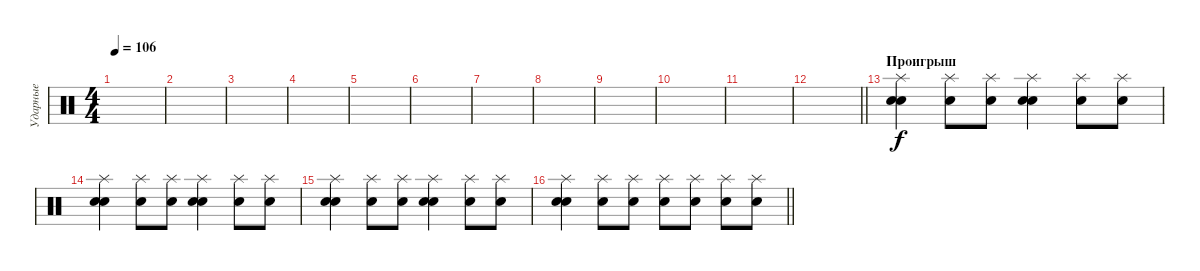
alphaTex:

\track ("Ударные" "Ударные") {instrument percussion}
\staff {score}
\articulation defaults
\ts (4 4)
\tempo 106
\clef neutral
\ks c
|
|
|
|
|
|
|
|
|
|
|
\barLineRight lightlight
|
\section ("" "Проигрыш")
("Snare (hit) 2" "Electric Snare (hit)" "Splash (hit)").4 ("Electric Snare (hit)" "Splash (hit)").8 ("Electric Snare (hit)" "Splash (hit)").8 ("Snare (hit) 2" "Electric Snare (hit)" "Splash (hit)").4 ("Electric Snare (hit)" "Splash (hit)").8 ("Electric Snare (hit)" "Splash (hit)").8 |
("Snare (hit) 2" "Electric Snare (hit)" "Splash (hit)").4 ("Electric Snare (hit)" "Splash (hit)").8 ("Electric Snare (hit)" "Splash (hit)").8 ("Snare (hit) 2" "Electric Snare (hit)" "Splash (hit)").4 ("Electric Snare (hit)" "Splash (hit)").8 ("Electric Snare (hit)" "Splash (hit)").8 |
("Snare (hit) 2" "Electric Snare (hit)" "Splash (hit)").4 ("Electric Snare (hit)" "Splash (hit)").8 ("Electric Snare (hit)" "Splash (hit)").8 ("Snare (hit) 2" "Electric Snare (hit)" "Splash (hit)").4 ("Electric Snare (hit)" "Splash (hit)").8 ("Electric Snare (hit)" "Splash (hit)").8 |
\barLineRight lightlight
("Snare (hit) 2" "Electric Snare (hit)" "Splash (hit)").4 ("Electric Snare (hit)" "Splash (hit)").8 ("Electric Snare (hit)" "Splash (hit)").8 ("Electric Snare (hit)" "Splash (hit)").8 ("Electric Snare (hit)" "Splash (hit)").8 ("Electric Snare (hit)" "Splash (hit)").8 ("Electric Snare (hit)" "Splash (hit)").8
